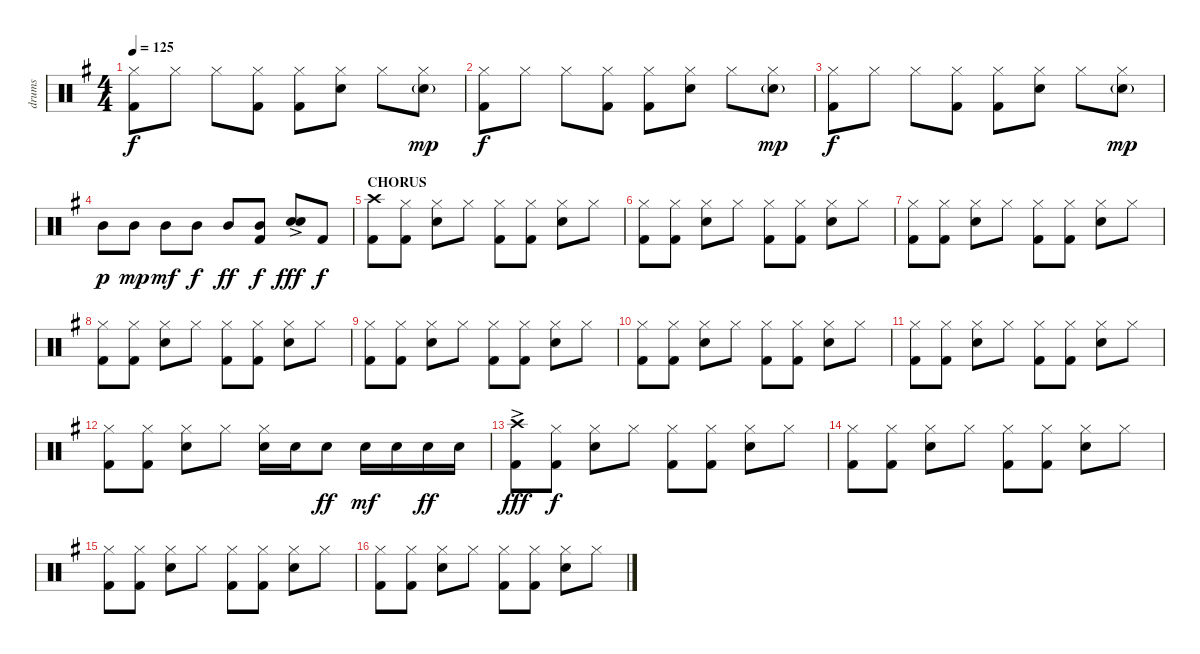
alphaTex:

\track ("drums" "drums") {instrument percussion}
\staff {score}
\articulation defaults
\ts (4 4)
\tempo 125
\clef neutral
\ks eminor
("Hi-Hat (closed)" "Kick (hit) 2").8{dy f} "Hi-Hat (closed)".8 "Hi-Hat (closed)".8 ("Hi-Hat (closed)" "Kick (hit) 2").8 ("Hi-Hat (closed)" "Kick (hit) 2").8 ("Hi-Hat (closed)" "Snare (hit) 2").8 "Hi-Hat (closed)".8 ("Hi-Hat (closed)" "Snare (hit) 2"{g}).8{dy mp} |
("Hi-Hat (closed)" "Kick (hit) 2").8{dy f} "Hi-Hat (closed)".8 "Hi-Hat (closed)".8 ("Hi-Hat (closed)" "Kick (hit) 2").8 ("Hi-Hat (closed)" "Kick (hit) 2").8 ("Hi-Hat (closed)" "Snare (hit) 2").8 "Hi-Hat (closed)".8 ("Hi-Hat (closed)" "Snare (hit) 2"{g}).8{dy mp} |
("Hi-Hat (closed)" "Kick (hit) 2").8{dy f} "Hi-Hat (closed)".8 "Hi-Hat (closed)".8 ("Hi-Hat (closed)" "Kick (hit) 2").8 ("Hi-Hat (closed)" "Kick (hit) 2").8 ("Hi-Hat (closed)" "Snare (hit) 2").8 "Hi-Hat (closed)".8 ("Hi-Hat (closed)" "Snare (hit) 2"{g}).8{dy mp} |
"Mid Tom (hit)".8{dy p} "Mid Tom (hit)".8{dy mp} "Mid Tom (hit)".8{dy mf} "Mid Tom (hit)".8{dy f} "Mid Tom (hit)".8{dy ff} ("Mid Tom (hit)" "Kick (hit) 2").8{dy f} ("Electric Snare (hit)"{ac} "Snare (hit) 2").8{dy fff} "Kick (hit) 2".8{dy f} |
\section ("" "CHORUS")
("Crash high (hit)" "Kick (hit) 2").8 ("Hi-Hat (closed)" "Kick (hit) 2").8 ("Hi-Hat (closed)" "Snare (hit) 2").8 "Hi-Hat (closed)".8 ("Hi-Hat (closed)" "Kick (hit) 2").8 ("Hi-Hat (closed)" "Kick (hit) 2").8 ("Hi-Hat (closed)" "Snare (hit) 2").8 "Hi-Hat (closed)".8 |
("Hi-Hat (closed)" "Kick (hit) 2").8 ("Hi-Hat (closed)" "Kick (hit) 2").8 ("Hi-Hat (closed)" "Snare (hit) 2").8 "Hi-Hat (closed)".8 ("Hi-Hat (closed)" "Kick (hit) 2").8 ("Hi-Hat (closed)" "Kick (hit) 2").8 ("Hi-Hat (closed)" "Snare (hit) 2").8 "Hi-Hat (closed)".8 |
("Hi-Hat (closed)" "Kick (hit) 2").8 ("Hi-Hat (closed)" "Kick (hit) 2").8 ("Hi-Hat (closed)" "Snare (hit) 2").8 "Hi-Hat (closed)".8 ("Hi-Hat (closed)" "Kick (hit) 2").8 ("Hi-Hat (closed)" "Kick (hit) 2").8 ("Hi-Hat (closed)" "Snare (hit) 2").8 "Hi-Hat (closed)".8 |
("Hi-Hat (closed)" "Kick (hit) 2").8 ("Hi-Hat (closed)" "Kick (hit) 2").8 ("Hi-Hat (closed)" "Snare (hit) 2").8 "Hi-Hat (closed)".8 ("Hi-Hat (closed)" "Kick (hit) 2").8 ("Hi-Hat (closed)" "Kick (hit) 2").8 ("Hi-Hat (closed)" "Snare (hit) 2").8 "Hi-Hat (closed)".8 |
("Hi-Hat (closed)" "Kick (hit) 2").8 ("Hi-Hat (closed)" "Kick (hit) 2").8 ("Hi-Hat (closed)" "Snare (hit) 2").8 "Hi-Hat (closed)".8 ("Hi-Hat (closed)" "Kick (hit) 2").8 ("Hi-Hat (closed)" "Kick (hit) 2").8 ("Hi-Hat (closed)" "Snare (hit) 2").8 "Hi-Hat (closed)".8 |
("Hi-Hat (closed)" "Kick (hit) 2").8 ("Hi-Hat (closed)" "Kick (hit) 2").8 ("Hi-Hat (closed)" "Snare (hit) 2").8 "Hi-Hat (closed)".8 ("Hi-Hat (closed)" "Kick (hit) 2").8 ("Hi-Hat (closed)" "Kick (hit) 2").8 ("Hi-Hat (closed)" "Snare (hit) 2").8 "Hi-Hat (closed)".8 |
("Hi-Hat (closed)" "Kick (hit) 2").8 ("Hi-Hat (closed)" "Kick (hit) 2").8 ("Hi-Hat (closed)" "Snare (hit) 2").8 "Hi-Hat (closed)".8 ("Hi-Hat (closed)" "Kick (hit) 2").8 ("Hi-Hat (closed)" "Kick (hit) 2").8 ("Hi-Hat (closed)" "Snare (hit) 2").8 "Hi-Hat (closed)".8 |
("Hi-Hat (closed)" "Kick (hit) 2").8 ("Hi-Hat (closed)" "Kick (hit) 2").8 ("Hi-Hat (closed)" "Snare (hit) 2").8 "Hi-Hat (closed)".8 ("Hi-Hat (closed)" "Snare (hit) 2").16 "Snare (hit) 2".16 "Snare (hit) 2".8{dy ff} "Snare (hit) 2".16{dy mf} "Snare (hit) 2".16 "Snare (hit) 2".16{dy ff} "Snare (hit) 2".16 |
("Crash high (hit)"{ac} "Kick (hit) 2"{ac}).8{dy fff} ("Hi-Hat (closed)" "Kick (hit) 2").8{dy f} ("Hi-Hat (closed)" "Snare (hit) 2").8 "Hi-Hat (closed)".8 ("Hi-Hat (closed)" "Kick (hit) 2").8 ("Hi-Hat (closed)" "Kick (hit) 2").8 ("Hi-Hat (closed)" "Snare (hit) 2").8 "Hi-Hat (closed)".8 |
("Hi-Hat (closed)" "Kick (hit) 2").8 ("Hi-Hat (closed)" "Kick (hit) 2").8 ("Hi-Hat (closed)" "Snare (hit) 2").8 "Hi-Hat (closed)".8 ("Hi-Hat (closed)" "Kick (hit) 2").8 ("Hi-Hat (closed)" "Kick (hit) 2").8 ("Hi-Hat (closed)" "Snare (hit) 2").8 "Hi-Hat (closed)".8 |
("Hi-Hat (closed)" "Kick (hit) 2").8 ("Hi-Hat (closed)" "Kick (hit) 2").8 ("Hi-Hat (closed)" "Snare (hit) 2").8 "Hi-Hat (closed)".8 ("Hi-Hat (closed)" "Kick (hit) 2").8 ("Hi-Hat (closed)" "Kick (hit) 2").8 ("Hi-Hat (closed)" "Snare (hit) 2").8 "Hi-Hat (closed)".8 |
("Hi-Hat (closed)" "Kick (hit) 2").8 ("Hi-Hat (closed)" "Kick (hit) 2").8 ("Hi-Hat (closed)" "Snare (hit) 2").8 "Hi-Hat (closed)".8 ("Hi-Hat (closed)" "Kick (hit) 2").8 ("Hi-Hat (closed)" "Kick (hit) 2").8 ("Hi-Hat (closed)" "Snare (hit) 2").8 "Hi-Hat (closed)".8
